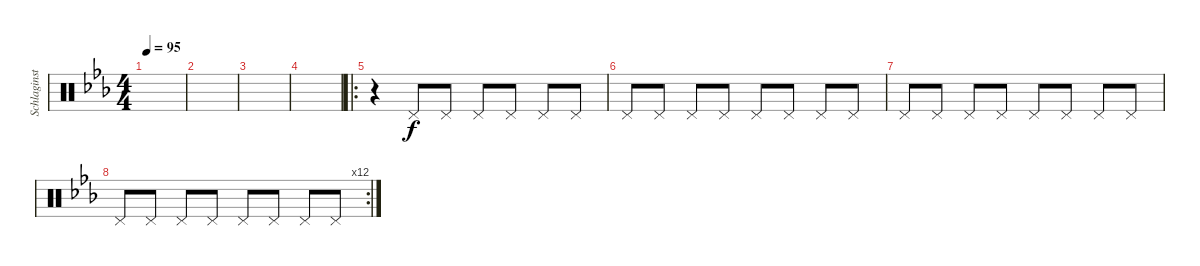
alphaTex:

\track ("Schlaginstrumente - Auswahl" "Schlaginst") {instrument percussion}
\staff {score}
\articulation defaults
\ts (4 4)
\tempo 95
\clef neutral
\ks eb
|
|
|
|
\ro
r.4 "Pedal Hi-Hat (hit)".8 "Pedal Hi-Hat (hit)".8 "Pedal Hi-Hat (hit)".8 "Pedal Hi-Hat (hit)".8 "Pedal Hi-Hat (hit)".8 "Pedal Hi-Hat (hit)".8 |
"Pedal Hi-Hat (hit)".8 "Pedal Hi-Hat (hit)".8 "Pedal Hi-Hat (hit)".8 "Pedal Hi-Hat (hit)".8 "Pedal Hi-Hat (hit)".8 "Pedal Hi-Hat (hit)".8 "Pedal Hi-Hat (hit)".8 "Pedal Hi-Hat (hit)".8 |
"Pedal Hi-Hat (hit)".8 "Pedal Hi-Hat (hit)".8 "Pedal Hi-Hat (hit)".8 "Pedal Hi-Hat (hit)".8 "Pedal Hi-Hat (hit)".8 "Pedal Hi-Hat (hit)".8 "Pedal Hi-Hat (hit)".8 "Pedal Hi-Hat (hit)".8 |
\rc 12 "Pedal Hi-Hat (hit)".8 "Pedal Hi-Hat (hit)".8 "Pedal Hi-Hat (hit)".8 "Pedal Hi-Hat (hit)".8 "Pedal Hi-Hat (hit)".8 "Pedal Hi-Hat (hit)".8 "Pedal Hi-Hat (hit)".8 "Pedal Hi-Hat (hit)".8
